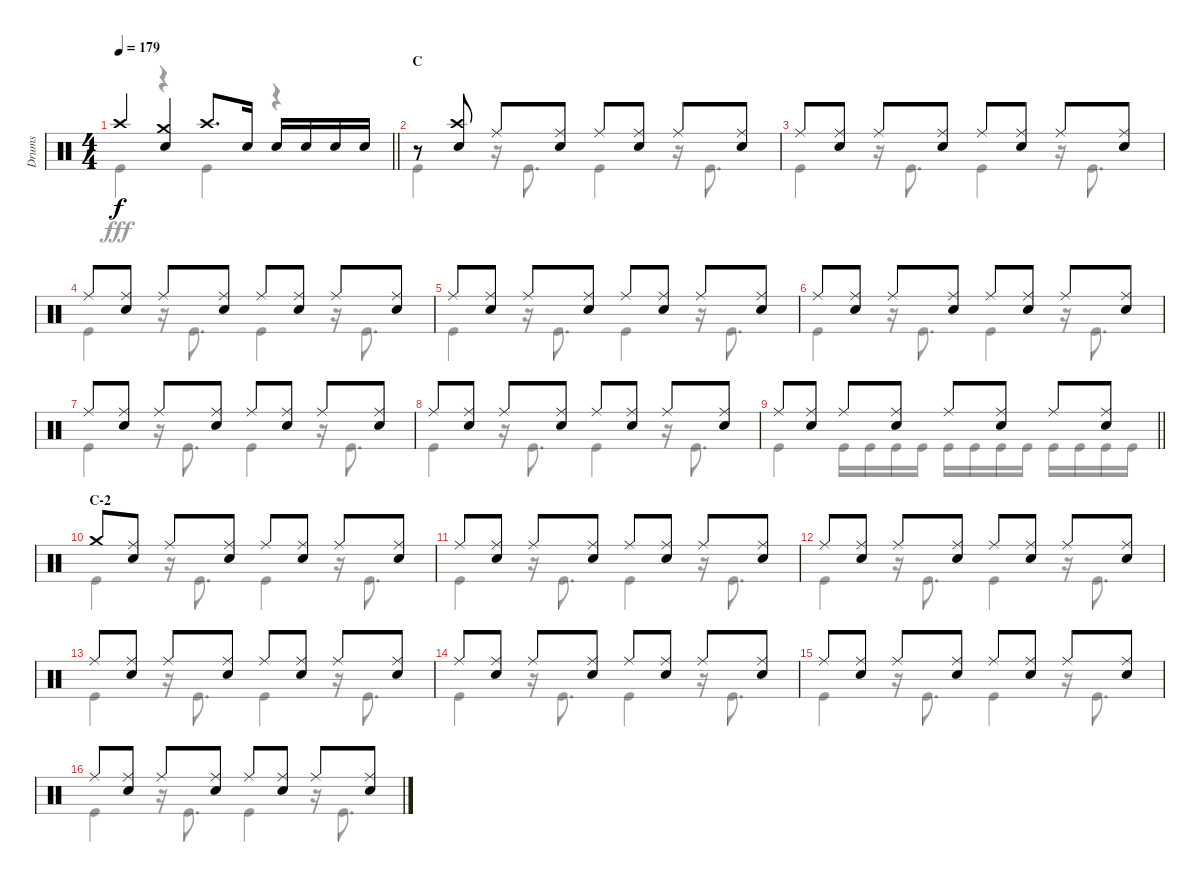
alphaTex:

\track ("Drums" "Drums") {instrument percussion}
\staff {score}
\articulation defaults
\voice
\ts (4 4)
\tempo 179
\clef neutral
\barLineRight lightlight
\ks c "Crash high (hit)".4{dy f}
("Crash medium (hit)" "Snare (hit) 2").4 "Crash high (hit)".8{d} "Snare (hit) 2".16 "Snare (hit) 2".16 "Snare (hit) 2".16 "Snare (hit) 2".16 "Snare (hit) 2".16 |
\section ("" "C")
r.8 ("Crash high (hit)" "Snare (hit) 2").8 "Ride (middle)".8 ("Ride (middle)" "Snare (hit) 2").8 "Ride (middle)".8 ("Ride (middle)" "Snare (hit) 2").8 "Ride (middle)".8 ("Ride (middle)" "Snare (hit) 2").8 |
"Ride (middle)".8 ("Ride (middle)" "Snare (hit) 2").8 "Ride (middle)".8 ("Ride (middle)" "Snare (hit) 2").8 "Ride (middle)".8 ("Ride (middle)" "Snare (hit) 2").8 "Ride (middle)".8 ("Ride (middle)" "Snare (hit) 2").8 |
"Ride (middle)".8 ("Ride (middle)" "Snare (hit) 2").8 "Ride (middle)".8 ("Ride (middle)" "Snare (hit) 2").8 "Ride (middle)".8 ("Ride (middle)" "Snare (hit) 2").8 "Ride (middle)".8 ("Ride (middle)" "Snare (hit) 2").8 |
"Ride (middle)".8 ("Ride (middle)" "Snare (hit) 2").8 "Ride (middle)".8 ("Ride (middle)" "Snare (hit) 2").8 "Ride (middle)".8 ("Ride (middle)" "Snare (hit) 2").8 "Ride (middle)".8 ("Ride (middle)" "Snare (hit) 2").8 |
"Ride (middle)".8 ("Ride (middle)" "Snare (hit) 2").8 "Ride (middle)".8 ("Ride (middle)" "Snare (hit) 2").8 "Ride (middle)".8 ("Ride (middle)" "Snare (hit) 2").8 "Ride (middle)".8 ("Ride (middle)" "Snare (hit) 2").8 |
"Ride (middle)".8 ("Ride (middle)" "Snare (hit) 2").8 "Ride (middle)".8 ("Ride (middle)" "Snare (hit) 2").8 "Ride (middle)".8 ("Ride (middle)" "Snare (hit) 2").8 "Ride (middle)".8 ("Ride (middle)" "Snare (hit) 2").8 |
"Ride (middle)".8 ("Ride (middle)" "Snare (hit) 2").8 "Ride (middle)".8 ("Ride (middle)" "Snare (hit) 2").8 "Ride (middle)".8 ("Ride (middle)" "Snare (hit) 2").8 "Ride (middle)".8 ("Ride (middle)" "Snare (hit) 2").8 |
\barLineRight lightlight "Ride (middle)".8
("Ride (middle)" "Snare (hit) 2").8 "Ride (middle)".8 ("Ride (middle)" "Snare (hit) 2").8 "Ride (middle)".8 ("Ride (middle)" "Snare (hit) 2").8 "Ride (middle)".8 ("Ride (middle)" "Snare (hit) 2").8 |
\section ("" "C-2")
"Crash medium (hit)".8 ("Ride (middle)" "Snare (hit) 2").8 "Ride (middle)".8 ("Ride (middle)" "Snare (hit) 2").8 "Ride (middle)".8 ("Ride (middle)" "Snare (hit) 2").8 "Ride (middle)".8 ("Ride (middle)" "Snare (hit) 2").8 |
"Ride (middle)".8 ("Ride (middle)" "Snare (hit) 2").8 "Ride (middle)".8 ("Ride (middle)" "Snare (hit) 2").8 "Ride (middle)".8 ("Ride (middle)" "Snare (hit) 2").8 "Ride (middle)".8 ("Ride (middle)" "Snare (hit) 2").8 |
"Ride (middle)".8 ("Ride (middle)" "Snare (hit) 2").8 "Ride (middle)".8 ("Ride (middle)" "Snare (hit) 2").8 "Ride (middle)".8 ("Ride (middle)" "Snare (hit) 2").8 "Ride (middle)".8 ("Ride (middle)" "Snare (hit) 2").8 |
"Ride (middle)".8 ("Ride (middle)" "Snare (hit) 2").8 "Ride (middle)".8 ("Ride (middle)" "Snare (hit) 2").8 "Ride (middle)".8 ("Ride (middle)" "Snare (hit) 2").8 "Ride (middle)".8 ("Ride (middle)" "Snare (hit) 2").8 |
"Ride (middle)".8 ("Ride (middle)" "Snare (hit) 2").8 "Ride (middle)".8 ("Ride (middle)" "Snare (hit) 2").8 "Ride (middle)".8 ("Ride (middle)" "Snare (hit) 2").8 "Ride (middle)".8 ("Ride (middle)" "Snare (hit) 2").8 |
"Ride (middle)".8 ("Ride (middle)" "Snare (hit) 2").8 "Ride (middle)".8 ("Ride (middle)" "Snare (hit) 2").8 "Ride (middle)".8 ("Ride (middle)" "Snare (hit) 2").8 "Ride (middle)".8 ("Ride (middle)" "Snare (hit) 2").8 |
"Ride (middle)".8 ("Ride (middle)" "Snare (hit) 2").8 "Ride (middle)".8 ("Ride (middle)" "Snare (hit) 2").8 "Ride (middle)".8 ("Ride (middle)" "Snare (hit) 2").8 "Ride (middle)".8 ("Ride (middle)" "Snare (hit) 2").8
\voice
\clef neutral
\ottava regular
\simile none
\barLineRight lightlight
\ks c "Kick (hit)".4{dy fff}
r.4 "Kick (hit)".4 r.4 |
"Kick (hit)".4 r.16 "Kick (hit)".8{d} "Kick (hit)".4 r.16 "Kick (hit)".8{d} |
"Kick (hit)".4 r.16 "Kick (hit)".8{d} "Kick (hit)".4 r.16 "Kick (hit)".8{d} |
"Kick (hit)".4 r.16 "Kick (hit)".8{d} "Kick (hit)".4 r.16 "Kick (hit)".8{d} |
"Kick (hit)".4 r.16 "Kick (hit)".8{d} "Kick (hit)".4 r.16 "Kick (hit)".8{d} |
"Kick (hit)".4 r.16 "Kick (hit)".8{d} "Kick (hit)".4 r.16 "Kick (hit)".8{d} |
"Kick (hit)".4 r.16 "Kick (hit)".8{d} "Kick (hit)".4 r.16 "Kick (hit)".8{d} |
"Kick (hit)".4 r.16 "Kick (hit)".8{d} "Kick (hit)".4 r.16 "Kick (hit)".8{d} |
\barLineRight lightlight "Kick (hit)".4 "Kick (hit)".16 "Kick (hit)".16 "Kick (hit)".16 "Kick (hit)".16 "Kick (hit)".16 "Kick (hit)".16 "Kick (hit)".16 "Kick (hit)".16 "Kick (hit)".16 "Kick (hit)".16 "Kick (hit)".16 "Kick (hit)".16
|
"Kick (hit)".4 r.16 "Kick (hit)".8{d} "Kick (hit)".4 r.16 "Kick (hit)".8{d} |
"Kick (hit)".4 r.16 "Kick (hit)".8{d} "Kick (hit)".4 r.16 "Kick (hit)".8{d} |
"Kick (hit)".4 r.16 "Kick (hit)".8{d} "Kick (hit)".4 r.16 "Kick (hit)".8{d} |
"Kick (hit)".4 r.16 "Kick (hit)".8{d} "Kick (hit)".4 r.16 "Kick (hit)".8{d} |
"Kick (hit)".4 r.16 "Kick (hit)".8{d} "Kick (hit)".4 r.16 "Kick (hit)".8{d} |
"Kick (hit)".4 r.16 "Kick (hit)".8{d} "Kick (hit)".4 r.16 "Kick (hit)".8{d} |
"Kick (hit)".4 r.16 "Kick (hit)".8{d} "Kick (hit)".4 r.16 "Kick (hit)".8{d}
